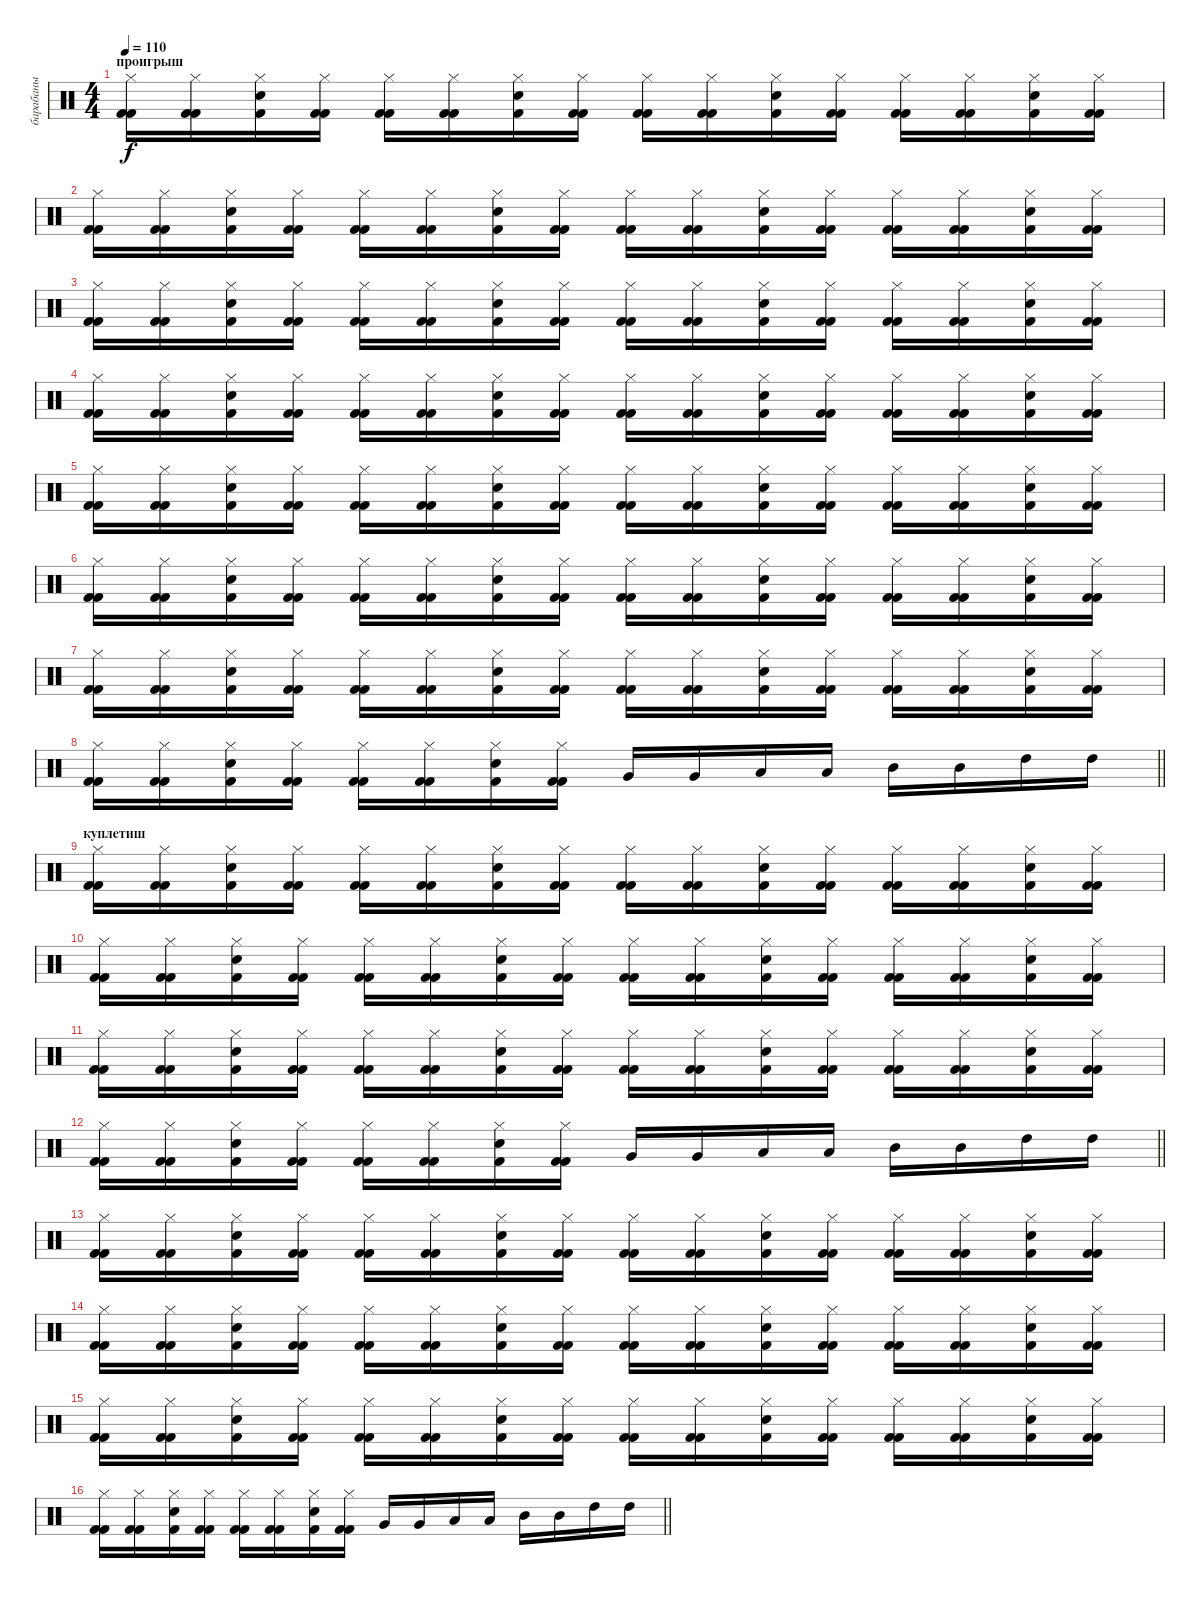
\track ("барабаны" "барабаны") {instrument percussion}
\staff {score}
\articulation defaults
\ts (4 4)
\section ("" "проигрыш")
\tempo 110
\clef neutral
\ks c
("Hi-Hat (closed)" "Kick (hit) 2" "Kick (hit) 2").16{dy f} ("Hi-Hat (closed)" "Kick (hit) 2" "Kick (hit) 2").16 ("Hi-Hat (closed)" "Snare (hit) 2" "Kick (hit) 2").16 ("Hi-Hat (closed)" "Kick (hit) 2" "Kick (hit) 2").16 ("Hi-Hat (closed)" "Kick (hit) 2" "Kick (hit) 2").16 ("Hi-Hat (closed)" "Kick (hit) 2" "Kick (hit) 2").16 ("Hi-Hat (closed)" "Snare (hit) 2" "Kick (hit) 2").16 ("Hi-Hat (closed)" "Kick (hit) 2" "Kick (hit) 2").16 ("Hi-Hat (closed)" "Kick (hit) 2" "Kick (hit) 2").16 ("Hi-Hat (closed)" "Kick (hit) 2" "Kick (hit) 2").16 ("Hi-Hat (closed)" "Snare (hit) 2" "Kick (hit) 2").16 ("Hi-Hat (closed)" "Kick (hit) 2" "Kick (hit) 2").16 ("Hi-Hat (closed)" "Kick (hit) 2" "Kick (hit) 2").16 ("Hi-Hat (closed)" "Kick (hit) 2" "Kick (hit) 2").16 ("Hi-Hat (closed)" "Snare (hit) 2" "Kick (hit) 2").16 ("Hi-Hat (closed)" "Kick (hit) 2" "Kick (hit) 2").16 |
("Hi-Hat (closed)" "Kick (hit) 2" "Kick (hit) 2").16 ("Hi-Hat (closed)" "Kick (hit) 2" "Kick (hit) 2").16 ("Hi-Hat (closed)" "Snare (hit) 2" "Kick (hit) 2").16 ("Hi-Hat (closed)" "Kick (hit) 2" "Kick (hit) 2").16 ("Hi-Hat (closed)" "Kick (hit) 2" "Kick (hit) 2").16 ("Hi-Hat (closed)" "Kick (hit) 2" "Kick (hit) 2").16 ("Hi-Hat (closed)" "Snare (hit) 2" "Kick (hit) 2").16 ("Hi-Hat (closed)" "Kick (hit) 2" "Kick (hit) 2").16 ("Hi-Hat (closed)" "Kick (hit) 2" "Kick (hit) 2").16 ("Hi-Hat (closed)" "Kick (hit) 2" "Kick (hit) 2").16 ("Hi-Hat (closed)" "Snare (hit) 2" "Kick (hit) 2").16 ("Hi-Hat (closed)" "Kick (hit) 2" "Kick (hit) 2").16 ("Hi-Hat (closed)" "Kick (hit) 2" "Kick (hit) 2").16 ("Hi-Hat (closed)" "Kick (hit) 2" "Kick (hit) 2").16 ("Hi-Hat (closed)" "Snare (hit) 2" "Kick (hit) 2").16 ("Hi-Hat (closed)" "Kick (hit) 2" "Kick (hit) 2").16 |
("Hi-Hat (closed)" "Kick (hit) 2" "Kick (hit) 2").16 ("Hi-Hat (closed)" "Kick (hit) 2" "Kick (hit) 2").16 ("Hi-Hat (closed)" "Snare (hit) 2" "Kick (hit) 2").16 ("Hi-Hat (closed)" "Kick (hit) 2" "Kick (hit) 2").16 ("Hi-Hat (closed)" "Kick (hit) 2" "Kick (hit) 2").16 ("Hi-Hat (closed)" "Kick (hit) 2" "Kick (hit) 2").16 ("Hi-Hat (closed)" "Snare (hit) 2" "Kick (hit) 2").16 ("Hi-Hat (closed)" "Kick (hit) 2" "Kick (hit) 2").16 ("Hi-Hat (closed)" "Kick (hit) 2" "Kick (hit) 2").16 ("Hi-Hat (closed)" "Kick (hit) 2" "Kick (hit) 2").16 ("Hi-Hat (closed)" "Snare (hit) 2" "Kick (hit) 2").16 ("Hi-Hat (closed)" "Kick (hit) 2" "Kick (hit) 2").16 ("Hi-Hat (closed)" "Kick (hit) 2" "Kick (hit) 2").16 ("Hi-Hat (closed)" "Kick (hit) 2" "Kick (hit) 2").16 ("Hi-Hat (closed)" "Snare (hit) 2" "Kick (hit) 2").16 ("Hi-Hat (closed)" "Kick (hit) 2" "Kick (hit) 2").16 |
("Hi-Hat (closed)" "Kick (hit) 2" "Kick (hit) 2").16 ("Hi-Hat (closed)" "Kick (hit) 2" "Kick (hit) 2").16 ("Hi-Hat (closed)" "Snare (hit) 2" "Kick (hit) 2").16 ("Hi-Hat (closed)" "Kick (hit) 2" "Kick (hit) 2").16 ("Hi-Hat (closed)" "Kick (hit) 2" "Kick (hit) 2").16 ("Hi-Hat (closed)" "Kick (hit) 2" "Kick (hit) 2").16 ("Hi-Hat (closed)" "Snare (hit) 2" "Kick (hit) 2").16 ("Hi-Hat (closed)" "Kick (hit) 2" "Kick (hit) 2").16 ("Hi-Hat (closed)" "Kick (hit) 2" "Kick (hit) 2").16 ("Hi-Hat (closed)" "Kick (hit) 2" "Kick (hit) 2").16 ("Hi-Hat (closed)" "Snare (hit) 2" "Kick (hit) 2").16 ("Hi-Hat (closed)" "Kick (hit) 2" "Kick (hit) 2").16 ("Hi-Hat (closed)" "Kick (hit) 2" "Kick (hit) 2").16 ("Hi-Hat (closed)" "Kick (hit) 2" "Kick (hit) 2").16 ("Hi-Hat (closed)" "Snare (hit) 2" "Kick (hit) 2").16 ("Hi-Hat (closed)" "Kick (hit) 2" "Kick (hit) 2").16 |
("Hi-Hat (closed)" "Kick (hit) 2" "Kick (hit) 2").16 ("Hi-Hat (closed)" "Kick (hit) 2" "Kick (hit) 2").16 ("Hi-Hat (closed)" "Snare (hit) 2" "Kick (hit) 2").16 ("Hi-Hat (closed)" "Kick (hit) 2" "Kick (hit) 2").16 ("Hi-Hat (closed)" "Kick (hit) 2" "Kick (hit) 2").16 ("Hi-Hat (closed)" "Kick (hit) 2" "Kick (hit) 2").16 ("Hi-Hat (closed)" "Snare (hit) 2" "Kick (hit) 2").16 ("Hi-Hat (closed)" "Kick (hit) 2" "Kick (hit) 2").16 ("Hi-Hat (closed)" "Kick (hit) 2" "Kick (hit) 2").16 ("Hi-Hat (closed)" "Kick (hit) 2" "Kick (hit) 2").16 ("Hi-Hat (closed)" "Snare (hit) 2" "Kick (hit) 2").16 ("Hi-Hat (closed)" "Kick (hit) 2" "Kick (hit) 2").16 ("Hi-Hat (closed)" "Kick (hit) 2" "Kick (hit) 2").16 ("Hi-Hat (closed)" "Kick (hit) 2" "Kick (hit) 2").16 ("Hi-Hat (closed)" "Snare (hit) 2" "Kick (hit) 2").16 ("Hi-Hat (closed)" "Kick (hit) 2" "Kick (hit) 2").16 |
("Hi-Hat (closed)" "Kick (hit) 2" "Kick (hit) 2").16 ("Hi-Hat (closed)" "Kick (hit) 2" "Kick (hit) 2").16 ("Hi-Hat (closed)" "Snare (hit) 2" "Kick (hit) 2").16 ("Hi-Hat (closed)" "Kick (hit) 2" "Kick (hit) 2").16 ("Hi-Hat (closed)" "Kick (hit) 2" "Kick (hit) 2").16 ("Hi-Hat (closed)" "Kick (hit) 2" "Kick (hit) 2").16 ("Hi-Hat (closed)" "Snare (hit) 2" "Kick (hit) 2").16 ("Hi-Hat (closed)" "Kick (hit) 2" "Kick (hit) 2").16 ("Hi-Hat (closed)" "Kick (hit) 2" "Kick (hit) 2").16 ("Hi-Hat (closed)" "Kick (hit) 2" "Kick (hit) 2").16 ("Hi-Hat (closed)" "Snare (hit) 2" "Kick (hit) 2").16 ("Hi-Hat (closed)" "Kick (hit) 2" "Kick (hit) 2").16 ("Hi-Hat (closed)" "Kick (hit) 2" "Kick (hit) 2").16 ("Hi-Hat (closed)" "Kick (hit) 2" "Kick (hit) 2").16 ("Hi-Hat (closed)" "Snare (hit) 2" "Kick (hit) 2").16 ("Hi-Hat (closed)" "Kick (hit) 2" "Kick (hit) 2").16 |
("Hi-Hat (closed)" "Kick (hit) 2" "Kick (hit) 2").16 ("Hi-Hat (closed)" "Kick (hit) 2" "Kick (hit) 2").16 ("Hi-Hat (closed)" "Snare (hit) 2" "Kick (hit) 2").16 ("Hi-Hat (closed)" "Kick (hit) 2" "Kick (hit) 2").16 ("Hi-Hat (closed)" "Kick (hit) 2" "Kick (hit) 2").16 ("Hi-Hat (closed)" "Kick (hit) 2" "Kick (hit) 2").16 ("Hi-Hat (closed)" "Snare (hit) 2" "Kick (hit) 2").16 ("Hi-Hat (closed)" "Kick (hit) 2" "Kick (hit) 2").16 ("Hi-Hat (closed)" "Kick (hit) 2" "Kick (hit) 2").16 ("Hi-Hat (closed)" "Kick (hit) 2" "Kick (hit) 2").16 ("Hi-Hat (closed)" "Snare (hit) 2" "Kick (hit) 2").16 ("Hi-Hat (closed)" "Kick (hit) 2" "Kick (hit) 2").16 ("Hi-Hat (closed)" "Kick (hit) 2" "Kick (hit) 2").16 ("Hi-Hat (closed)" "Kick (hit) 2" "Kick (hit) 2").16 ("Hi-Hat (closed)" "Snare (hit) 2" "Kick (hit) 2").16 ("Hi-Hat (closed)" "Kick (hit) 2" "Kick (hit) 2").16 |
\barLineRight lightlight
("Hi-Hat (closed)" "Kick (hit) 2" "Kick (hit) 2").16 ("Hi-Hat (closed)" "Kick (hit) 2" "Kick (hit) 2").16 ("Hi-Hat (closed)" "Snare (hit) 2" "Kick (hit) 2").16 ("Hi-Hat (closed)" "Kick (hit) 2" "Kick (hit) 2").16 ("Hi-Hat (closed)" "Kick (hit) 2" "Kick (hit) 2").16 ("Hi-Hat (closed)" "Kick (hit) 2" "Kick (hit) 2").16 ("Hi-Hat (closed)" "Snare (hit) 2" "Kick (hit) 2").16 ("Hi-Hat (closed)" "Kick (hit) 2" "Kick (hit) 2").16 "Very Low Tom (hit)".16 "Very Low Tom (hit)".16 "Low Tom (hit)".16 "Low Tom (hit)".16 "Mid Tom (hit)".16 "Mid Tom (hit)".16 "High Tom (hit)".16 "High Tom (hit)".16 |
\section ("" "куплетиш")
("Hi-Hat (closed)" "Kick (hit) 2" "Kick (hit) 2").16 ("Hi-Hat (closed)" "Kick (hit) 2" "Kick (hit) 2").16 ("Hi-Hat (closed)" "Snare (hit) 2" "Kick (hit) 2").16 ("Hi-Hat (closed)" "Kick (hit) 2" "Kick (hit) 2").16 ("Hi-Hat (closed)" "Kick (hit) 2" "Kick (hit) 2").16 ("Hi-Hat (closed)" "Kick (hit) 2" "Kick (hit) 2").16 ("Hi-Hat (closed)" "Snare (hit) 2" "Kick (hit) 2").16 ("Hi-Hat (closed)" "Kick (hit) 2" "Kick (hit) 2").16 ("Hi-Hat (closed)" "Kick (hit) 2" "Kick (hit) 2").16 ("Hi-Hat (closed)" "Kick (hit) 2" "Kick (hit) 2").16 ("Hi-Hat (closed)" "Snare (hit) 2" "Kick (hit) 2").16 ("Hi-Hat (closed)" "Kick (hit) 2" "Kick (hit) 2").16 ("Hi-Hat (closed)" "Kick (hit) 2" "Kick (hit) 2").16 ("Hi-Hat (closed)" "Kick (hit) 2" "Kick (hit) 2").16 ("Hi-Hat (closed)" "Snare (hit) 2" "Kick (hit) 2").16 ("Hi-Hat (closed)" "Kick (hit) 2" "Kick (hit) 2").16 |
("Hi-Hat (closed)" "Kick (hit) 2" "Kick (hit) 2").16 ("Hi-Hat (closed)" "Kick (hit) 2" "Kick (hit) 2").16 ("Hi-Hat (closed)" "Snare (hit) 2" "Kick (hit) 2").16 ("Hi-Hat (closed)" "Kick (hit) 2" "Kick (hit) 2").16 ("Hi-Hat (closed)" "Kick (hit) 2" "Kick (hit) 2").16 ("Hi-Hat (closed)" "Kick (hit) 2" "Kick (hit) 2").16 ("Hi-Hat (closed)" "Snare (hit) 2" "Kick (hit) 2").16 ("Hi-Hat (closed)" "Kick (hit) 2" "Kick (hit) 2").16 ("Hi-Hat (closed)" "Kick (hit) 2" "Kick (hit) 2").16 ("Hi-Hat (closed)" "Kick (hit) 2" "Kick (hit) 2").16 ("Hi-Hat (closed)" "Snare (hit) 2" "Kick (hit) 2").16 ("Hi-Hat (closed)" "Kick (hit) 2" "Kick (hit) 2").16 ("Hi-Hat (closed)" "Kick (hit) 2" "Kick (hit) 2").16 ("Hi-Hat (closed)" "Kick (hit) 2" "Kick (hit) 2").16 ("Hi-Hat (closed)" "Snare (hit) 2" "Kick (hit) 2").16 ("Hi-Hat (closed)" "Kick (hit) 2" "Kick (hit) 2").16 |
("Hi-Hat (closed)" "Kick (hit) 2" "Kick (hit) 2").16 ("Hi-Hat (closed)" "Kick (hit) 2" "Kick (hit) 2").16 ("Hi-Hat (closed)" "Snare (hit) 2" "Kick (hit) 2").16 ("Hi-Hat (closed)" "Kick (hit) 2" "Kick (hit) 2").16 ("Hi-Hat (closed)" "Kick (hit) 2" "Kick (hit) 2").16 ("Hi-Hat (closed)" "Kick (hit) 2" "Kick (hit) 2").16 ("Hi-Hat (closed)" "Snare (hit) 2" "Kick (hit) 2").16 ("Hi-Hat (closed)" "Kick (hit) 2" "Kick (hit) 2").16 ("Hi-Hat (closed)" "Kick (hit) 2" "Kick (hit) 2").16 ("Hi-Hat (closed)" "Kick (hit) 2" "Kick (hit) 2").16 ("Hi-Hat (closed)" "Snare (hit) 2" "Kick (hit) 2").16 ("Hi-Hat (closed)" "Kick (hit) 2" "Kick (hit) 2").16 ("Hi-Hat (closed)" "Kick (hit) 2" "Kick (hit) 2").16 ("Hi-Hat (closed)" "Kick (hit) 2" "Kick (hit) 2").16 ("Hi-Hat (closed)" "Snare (hit) 2" "Kick (hit) 2").16 ("Hi-Hat (closed)" "Kick (hit) 2" "Kick (hit) 2").16 |
\barLineRight lightlight
("Hi-Hat (closed)" "Kick (hit) 2" "Kick (hit) 2").16 ("Hi-Hat (closed)" "Kick (hit) 2" "Kick (hit) 2").16 ("Hi-Hat (closed)" "Snare (hit) 2" "Kick (hit) 2").16 ("Hi-Hat (closed)" "Kick (hit) 2" "Kick (hit) 2").16 ("Hi-Hat (closed)" "Kick (hit) 2" "Kick (hit) 2").16 ("Hi-Hat (closed)" "Kick (hit) 2" "Kick (hit) 2").16 ("Hi-Hat (closed)" "Snare (hit) 2" "Kick (hit) 2").16 ("Hi-Hat (closed)" "Kick (hit) 2" "Kick (hit) 2").16 "Very Low Tom (hit)".16 "Very Low Tom (hit)".16 "Low Tom (hit)".16 "Low Tom (hit)".16 "Mid Tom (hit)".16 "Mid Tom (hit)".16 "High Tom (hit)".16 "High Tom (hit)".16 |
("Hi-Hat (closed)" "Kick (hit) 2" "Kick (hit) 2").16 ("Hi-Hat (closed)" "Kick (hit) 2" "Kick (hit) 2").16 ("Hi-Hat (closed)" "Snare (hit) 2" "Kick (hit) 2").16 ("Hi-Hat (closed)" "Kick (hit) 2" "Kick (hit) 2").16 ("Hi-Hat (closed)" "Kick (hit) 2" "Kick (hit) 2").16 ("Hi-Hat (closed)" "Kick (hit) 2" "Kick (hit) 2").16 ("Hi-Hat (closed)" "Snare (hit) 2" "Kick (hit) 2").16 ("Hi-Hat (closed)" "Kick (hit) 2" "Kick (hit) 2").16 ("Hi-Hat (closed)" "Kick (hit) 2" "Kick (hit) 2").16 ("Hi-Hat (closed)" "Kick (hit) 2" "Kick (hit) 2").16 ("Hi-Hat (closed)" "Snare (hit) 2" "Kick (hit) 2").16 ("Hi-Hat (closed)" "Kick (hit) 2" "Kick (hit) 2").16 ("Hi-Hat (closed)" "Kick (hit) 2" "Kick (hit) 2").16 ("Hi-Hat (closed)" "Kick (hit) 2" "Kick (hit) 2").16 ("Hi-Hat (closed)" "Snare (hit) 2" "Kick (hit) 2").16 ("Hi-Hat (closed)" "Kick (hit) 2" "Kick (hit) 2").16 |
("Hi-Hat (closed)" "Kick (hit) 2" "Kick (hit) 2").16 ("Hi-Hat (closed)" "Kick (hit) 2" "Kick (hit) 2").16 ("Hi-Hat (closed)" "Snare (hit) 2" "Kick (hit) 2").16 ("Hi-Hat (closed)" "Kick (hit) 2" "Kick (hit) 2").16 ("Hi-Hat (closed)" "Kick (hit) 2" "Kick (hit) 2").16 ("Hi-Hat (closed)" "Kick (hit) 2" "Kick (hit) 2").16 ("Hi-Hat (closed)" "Snare (hit) 2" "Kick (hit) 2").16 ("Hi-Hat (closed)" "Kick (hit) 2" "Kick (hit) 2").16 ("Hi-Hat (closed)" "Kick (hit) 2" "Kick (hit) 2").16 ("Hi-Hat (closed)" "Kick (hit) 2" "Kick (hit) 2").16 ("Hi-Hat (closed)" "Snare (hit) 2" "Kick (hit) 2").16 ("Hi-Hat (closed)" "Kick (hit) 2" "Kick (hit) 2").16 ("Hi-Hat (closed)" "Kick (hit) 2" "Kick (hit) 2").16 ("Hi-Hat (closed)" "Kick (hit) 2" "Kick (hit) 2").16 ("Hi-Hat (closed)" "Snare (hit) 2" "Kick (hit) 2").16 ("Hi-Hat (closed)" "Kick (hit) 2" "Kick (hit) 2").16 |
("Hi-Hat (closed)" "Kick (hit) 2" "Kick (hit) 2").16 ("Hi-Hat (closed)" "Kick (hit) 2" "Kick (hit) 2").16 ("Hi-Hat (closed)" "Snare (hit) 2" "Kick (hit) 2").16 ("Hi-Hat (closed)" "Kick (hit) 2" "Kick (hit) 2").16 ("Hi-Hat (closed)" "Kick (hit) 2" "Kick (hit) 2").16 ("Hi-Hat (closed)" "Kick (hit) 2" "Kick (hit) 2").16 ("Hi-Hat (closed)" "Snare (hit) 2" "Kick (hit) 2").16 ("Hi-Hat (closed)" "Kick (hit) 2" "Kick (hit) 2").16 ("Hi-Hat (closed)" "Kick (hit) 2" "Kick (hit) 2").16 ("Hi-Hat (closed)" "Kick (hit) 2" "Kick (hit) 2").16 ("Hi-Hat (closed)" "Snare (hit) 2" "Kick (hit) 2").16 ("Hi-Hat (closed)" "Kick (hit) 2" "Kick (hit) 2").16 ("Hi-Hat (closed)" "Kick (hit) 2" "Kick (hit) 2").16 ("Hi-Hat (closed)" "Kick (hit) 2" "Kick (hit) 2").16 ("Hi-Hat (closed)" "Snare (hit) 2" "Kick (hit) 2").16 ("Hi-Hat (closed)" "Kick (hit) 2" "Kick (hit) 2").16 |
\barLineRight lightlight
("Hi-Hat (closed)" "Kick (hit) 2" "Kick (hit) 2").16 ("Hi-Hat (closed)" "Kick (hit) 2" "Kick (hit) 2").16 ("Hi-Hat (closed)" "Snare (hit) 2" "Kick (hit) 2").16 ("Hi-Hat (closed)" "Kick (hit) 2" "Kick (hit) 2").16 ("Hi-Hat (closed)" "Kick (hit) 2" "Kick (hit) 2").16 ("Hi-Hat (closed)" "Kick (hit) 2" "Kick (hit) 2").16 ("Hi-Hat (closed)" "Snare (hit) 2" "Kick (hit) 2").16 ("Hi-Hat (closed)" "Kick (hit) 2" "Kick (hit) 2").16 "Very Low Tom (hit)".16 "Very Low Tom (hit)".16 "Low Tom (hit)".16 "Low Tom (hit)".16 "Mid Tom (hit)".16 "Mid Tom (hit)".16 "High Tom (hit)".16 "High Tom (hit)".16
